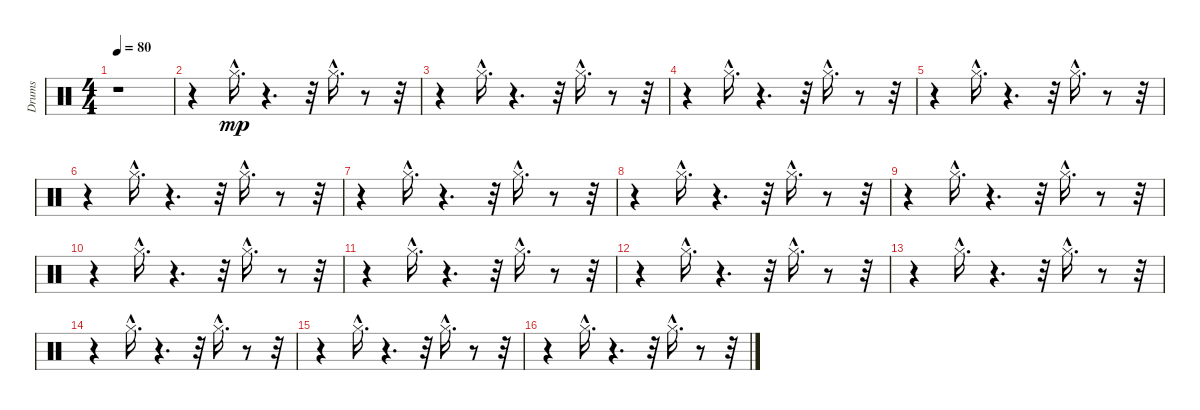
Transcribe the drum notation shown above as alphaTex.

\track ("Drums" "Drums") {instrument percussion}
\staff {score}
\articulation defaults
\ts (4 4)
\tempo 80
\clef neutral
\ks c
r.1{dy mp} |
r.4 "Hi-Hat (closed)"{hac}.16{d} r.4{d} r.32 "Hi-Hat (closed)"{hac}.16{d} r.8 r.32 |
r.4 "Hi-Hat (closed)"{hac}.16{d} r.4{d} r.32 "Hi-Hat (closed)"{hac}.16{d} r.8 r.32 |
r.4 "Hi-Hat (closed)"{hac}.16{d} r.4{d} r.32 "Hi-Hat (closed)"{hac}.16{d} r.8 r.32 |
r.4 "Hi-Hat (closed)"{hac}.16{d} r.4{d} r.32 "Hi-Hat (closed)"{hac}.16{d} r.8 r.32 |
r.4 "Hi-Hat (closed)"{hac}.16{d} r.4{d} r.32 "Hi-Hat (closed)"{hac}.16{d} r.8 r.32 |
r.4 "Hi-Hat (closed)"{hac}.16{d} r.4{d} r.32 "Hi-Hat (closed)"{hac}.16{d} r.8 r.32 |
r.4 "Hi-Hat (closed)"{hac}.16{d} r.4{d} r.32 "Hi-Hat (closed)"{hac}.16{d} r.8 r.32 |
r.4 "Hi-Hat (closed)"{hac}.16{d} r.4{d} r.32 "Hi-Hat (closed)"{hac}.16{d} r.8 r.32 |
r.4 "Hi-Hat (closed)"{hac}.16{d} r.4{d} r.32 "Hi-Hat (closed)"{hac}.16{d} r.8 r.32 |
r.4 "Hi-Hat (closed)"{hac}.16{d} r.4{d} r.32 "Hi-Hat (closed)"{hac}.16{d} r.8 r.32 |
r.4 "Hi-Hat (closed)"{hac}.16{d} r.4{d} r.32 "Hi-Hat (closed)"{hac}.16{d} r.8 r.32 |
r.4 "Hi-Hat (closed)"{hac}.16{d} r.4{d} r.32 "Hi-Hat (closed)"{hac}.16{d} r.8 r.32 |
r.4 "Hi-Hat (closed)"{hac}.16{d} r.4{d} r.32 "Hi-Hat (closed)"{hac}.16{d} r.8 r.32 |
r.4 "Hi-Hat (closed)"{hac}.16{d} r.4{d} r.32 "Hi-Hat (closed)"{hac}.16{d} r.8 r.32 |
r.4 "Hi-Hat (closed)"{hac}.16{d} r.4{d} r.32 "Hi-Hat (closed)"{hac}.16{d} r.8 r.32
